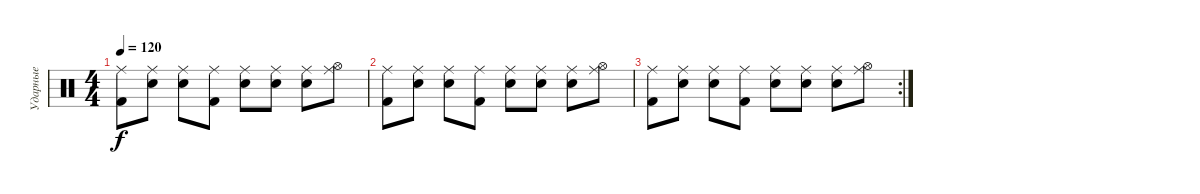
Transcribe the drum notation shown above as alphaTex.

\track ("Ударные" "Ударные") {instrument percussion}
\staff {score}
\articulation defaults
\ts (4 4)
\tempo 120
\clef neutral
\ks c
("Ride (middle)" "Kick (hit) 2").8{dy f} ("Ride (middle)" "Electric Snare (hit)").8 ("Ride (middle)" "Snare (hit) 2").8 ("Ride (middle)" "Kick (hit) 2").8 ("Ride (middle)" "Electric Snare (hit)").8 ("Ride (middle)" "Snare (hit) 2").8 ("Ride (middle)" "Electric Snare (hit)").8 ("Ride (middle)" "Hi-Hat (open)").8 |
("Ride (middle)" "Kick (hit) 2").8 ("Ride (middle)" "Electric Snare (hit)").8 ("Ride (middle)" "Snare (hit) 2").8 ("Ride (middle)" "Kick (hit) 2").8 ("Ride (middle)" "Electric Snare (hit)").8 ("Ride (middle)" "Snare (hit) 2").8 ("Ride (middle)" "Electric Snare (hit)").8 ("Ride (middle)" "Hi-Hat (open)").8 |
\rc 2
("Ride (middle)" "Kick (hit) 2").8 ("Ride (middle)" "Electric Snare (hit)").8 ("Ride (middle)" "Snare (hit) 2").8 ("Ride (middle)" "Kick (hit) 2").8 ("Ride (middle)" "Electric Snare (hit)").8 ("Ride (middle)" "Snare (hit) 2").8 ("Ride (middle)" "Electric Snare (hit)").8 ("Ride (middle)" "Hi-Hat (open)").8
